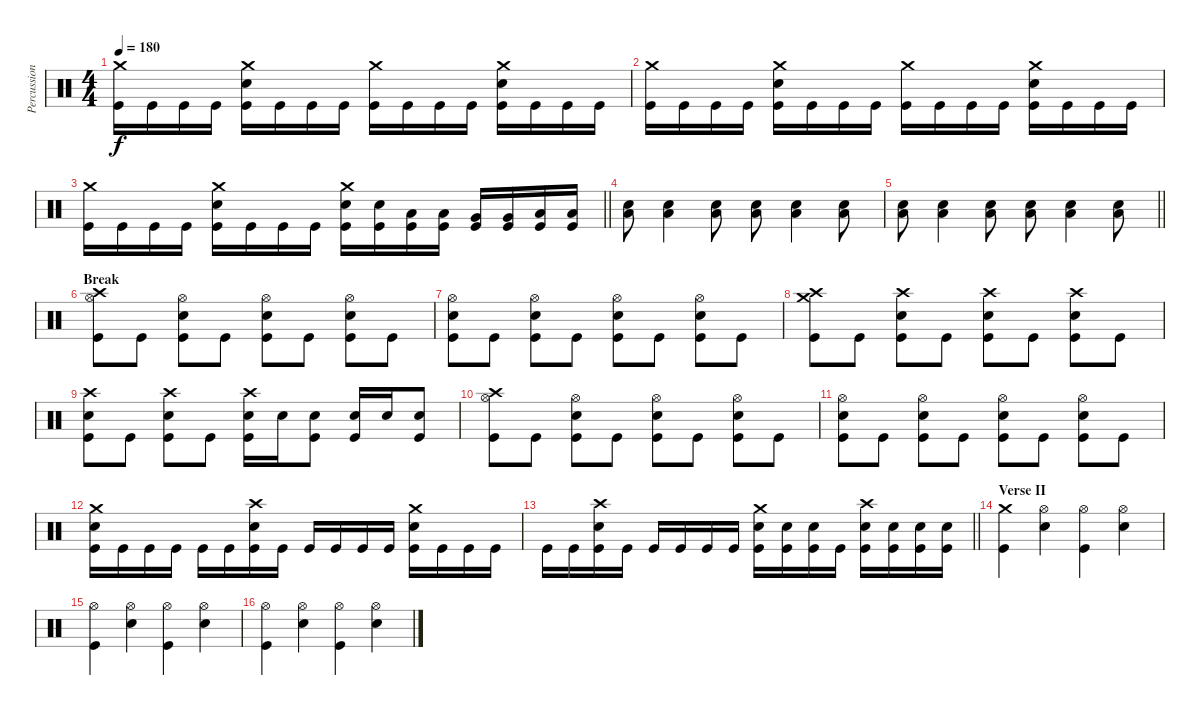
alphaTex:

\track ("Percussion" "Percussion") {instrument percussion}
\staff {score}
\articulation defaults
\ts (4 4)
\tempo 180
\clef neutral
\ks c
("Crash medium (hit)" "Kick (hit)").16{dy f} "Kick (hit)".16 "Kick (hit)".16 "Kick (hit)".16 ("Crash medium (hit)" "Electric Snare (hit)" "Kick (hit)").16 "Kick (hit)".16 "Kick (hit)".16 "Kick (hit)".16 ("Crash medium (hit)" "Kick (hit)").16 "Kick (hit)".16 "Kick (hit)".16 "Kick (hit)".16 ("Crash medium (hit)" "Electric Snare (hit)" "Kick (hit)").16 "Kick (hit)".16 "Kick (hit)".16 "Kick (hit)".16 |
("Crash medium (hit)" "Kick (hit)").16 "Kick (hit)".16 "Kick (hit)".16 "Kick (hit)".16 ("Crash medium (hit)" "Electric Snare (hit)" "Kick (hit)").16 "Kick (hit)".16 "Kick (hit)".16 "Kick (hit)".16 ("Crash medium (hit)" "Kick (hit)").16 "Kick (hit)".16 "Kick (hit)".16 "Kick (hit)".16 ("Crash medium (hit)" "Electric Snare (hit)" "Kick (hit)").16 "Kick (hit)".16 "Kick (hit)".16 "Kick (hit)".16 |
\barLineRight lightlight
("Crash medium (hit)" "Kick (hit)").16 "Kick (hit)".16 "Kick (hit)".16 "Kick (hit)".16 ("Crash medium (hit)" "Electric Snare (hit)" "Kick (hit)").16 "Kick (hit)".16 "Kick (hit)".16 "Kick (hit)".16 ("Crash medium (hit)" "Electric Snare (hit)" "Kick (hit)").16 ("Electric Snare (hit)" "Kick (hit)").16 ("Low Tom (hit)" "Kick (hit)").16 ("Low Tom (hit)" "Kick (hit)").16 ("Very Low Tom (hit)" "Kick (hit)").16 ("Very Low Tom (hit)" "Kick (hit)").16 ("Low Floor Tom (hit)" "Kick (hit)").16 ("Low Floor Tom (hit)" "Kick (hit)").16 |
("Electric Snare (hit)" "Low Floor Tom (hit)").8 ("Electric Snare (hit)" "Low Floor Tom (hit)").4 ("Electric Snare (hit)" "Low Floor Tom (hit)").8 ("Electric Snare (hit)" "Low Floor Tom (hit)").8 ("Electric Snare (hit)" "Low Floor Tom (hit)").4 ("Electric Snare (hit)" "Low Floor Tom (hit)").8 |
\barLineRight lightlight
("Electric Snare (hit)" "Low Floor Tom (hit)").8 ("Electric Snare (hit)" "Low Floor Tom (hit)").4 ("Electric Snare (hit)" "Low Floor Tom (hit)").8 ("Electric Snare (hit)" "Low Floor Tom (hit)").8 ("Electric Snare (hit)" "Low Floor Tom (hit)").4 ("Electric Snare (hit)" "Low Floor Tom (hit)").8 |
\section ("" "Break")
("Crash high (hit)" "Hi-Hat (open)" "Kick (hit)").8 "Kick (hit)".8 ("Hi-Hat (open)" "Electric Snare (hit)" "Kick (hit)").8 "Kick (hit)".8 ("Hi-Hat (open)" "Electric Snare (hit)" "Kick (hit)").8 "Kick (hit)".8 ("Hi-Hat (open)" "Electric Snare (hit)" "Kick (hit)").8 "Kick (hit)".8 |
("Hi-Hat (open)" "Electric Snare (hit)" "Kick (hit)").8 "Kick (hit)".8 ("Hi-Hat (open)" "Electric Snare (hit)" "Kick (hit)").8 "Kick (hit)".8 ("Hi-Hat (open)" "Electric Snare (hit)" "Kick (hit)").8 "Kick (hit)".8 ("Hi-Hat (open)" "Electric Snare (hit)" "Kick (hit)").8 "Kick (hit)".8 |
("Crash high (hit)" "Crash medium (hit)" "Kick (hit)").8 "Kick (hit)".8 ("Crash high (hit)" "Electric Snare (hit)" "Kick (hit)").8 "Kick (hit)".8 ("Crash high (hit)" "Electric Snare (hit)" "Kick (hit)").8 "Kick (hit)".8 ("Crash high (hit)" "Electric Snare (hit)" "Kick (hit)").8 "Kick (hit)".8 |
("Crash high (hit)" "Electric Snare (hit)" "Kick (hit)").8 "Kick (hit)".8 ("Crash high (hit)" "Electric Snare (hit)" "Kick (hit)").8 "Kick (hit)".8 ("Crash high (hit)" "Electric Snare (hit)" "Kick (hit)").16 "Electric Snare (hit)".16 ("Electric Snare (hit)" "Kick (hit)").8 ("Electric Snare (hit)" "Kick (hit)").16 "Electric Snare (hit)".16 ("Electric Snare (hit)" "Kick (hit)").8 |
("Crash high (hit)" "Hi-Hat (open)" "Kick (hit)").8 "Kick (hit)".8 ("Hi-Hat (open)" "Electric Snare (hit)" "Kick (hit)").8 "Kick (hit)".8 ("Hi-Hat (open)" "Electric Snare (hit)" "Kick (hit)").8 "Kick (hit)".8 ("Hi-Hat (open)" "Electric Snare (hit)" "Kick (hit)").8 "Kick (hit)".8 |
("Hi-Hat (open)" "Electric Snare (hit)" "Kick (hit)").8 "Kick (hit)".8 ("Hi-Hat (open)" "Electric Snare (hit)" "Kick (hit)").8 "Kick (hit)".8 ("Hi-Hat (open)" "Electric Snare (hit)" "Kick (hit)").8 "Kick (hit)".8 ("Hi-Hat (open)" "Electric Snare (hit)" "Kick (hit)").8 "Kick (hit)".8 |
("Crash medium (hit)" "Electric Snare (hit)" "Kick (hit)").16 "Kick (hit)".16 "Kick (hit)".16 "Kick (hit)".16 "Kick (hit)".16 "Kick (hit)".16 ("Crash high (hit)" "Electric Snare (hit)" "Kick (hit)").16 "Kick (hit)".16 "Kick (hit)".16 "Kick (hit)".16 "Kick (hit)".16 "Kick (hit)".16 ("Crash medium (hit)" "Electric Snare (hit)" "Kick (hit)").16 "Kick (hit)".16 "Kick (hit)".16 "Kick (hit)".16 |
\barLineRight lightlight "Kick (hit)".16 "Kick (hit)".16
("Crash high (hit)" "Electric Snare (hit)" "Kick (hit)").16 "Kick (hit)".16 "Kick (hit)".16 "Kick (hit)".16 "Kick (hit)".16 "Kick (hit)".16 ("Crash medium (hit)" "Electric Snare (hit)" "Kick (hit)").16 ("Electric Snare (hit)" "Kick (hit)").16 ("Electric Snare (hit)" "Kick (hit)").16 "Kick (hit)".16 ("Crash high (hit)" "Electric Snare (hit)" "Kick (hit)").16 ("Electric Snare (hit)" "Kick (hit)").16 ("Electric Snare (hit)" "Kick (hit)").16 ("Electric Snare (hit)" "Kick (hit)").16 |
\section ("" "Verse II")
("Crash medium (hit)" "Kick (hit)").4 ("Hi-Hat (open)" "Electric Snare (hit)").4 ("Hi-Hat (open)" "Kick (hit)").4 ("Hi-Hat (open)" "Electric Snare (hit)").4 |
("Hi-Hat (open)" "Kick (hit)").4 ("Hi-Hat (open)" "Electric Snare (hit)").4 ("Hi-Hat (open)" "Kick (hit)").4 ("Hi-Hat (open)" "Electric Snare (hit)").4 |
("Hi-Hat (open)" "Kick (hit)").4 ("Hi-Hat (open)" "Electric Snare (hit)").4 ("Hi-Hat (open)" "Kick (hit)").4 ("Hi-Hat (open)" "Electric Snare (hit)").4
